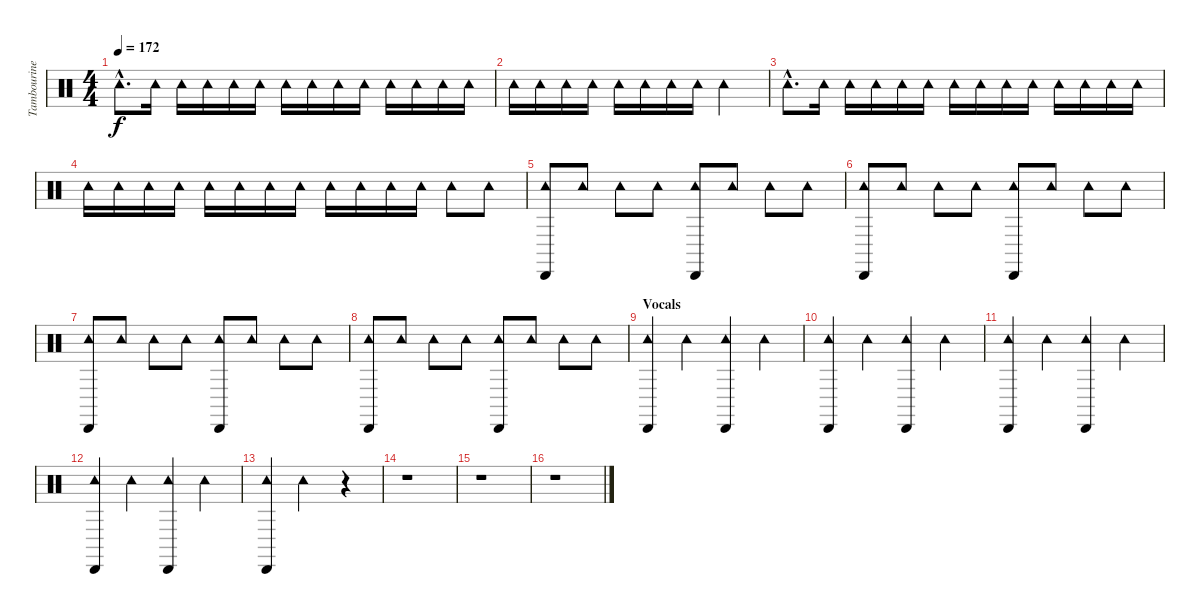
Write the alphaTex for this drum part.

\track ("Tambourine" "Tambourine") {instrument percussion}
\staff {score}
\articulation defaults
\ts (4 4)
\tempo 172
\clef neutral
\ks c "Tambourine (hit)"{hac}.8{d dy f} "Tambourine (hit)".16 "Tambourine (hit)".16 "Tambourine (hit)".16 "Tambourine (hit)".16 "Tambourine (hit)".16 "Tambourine (hit)".16 "Tambourine (hit)".16 "Tambourine (hit)".16 "Tambourine (hit)".16 "Tambourine (hit)".16 "Tambourine (hit)".16 "Tambourine (hit)".16 "Tambourine (hit)".16
|
"Tambourine (hit)".16 "Tambourine (hit)".16 "Tambourine (hit)".16 "Tambourine (hit)".16 "Tambourine (hit)".16 "Tambourine (hit)".16 "Tambourine (hit)".16 "Tambourine (hit)".16 "Tambourine (hit)".2 |
"Tambourine (hit)"{hac}.8{d} "Tambourine (hit)".16 "Tambourine (hit)".16 "Tambourine (hit)".16 "Tambourine (hit)".16 "Tambourine (hit)".16 "Tambourine (hit)".16 "Tambourine (hit)".16 "Tambourine (hit)".16 "Tambourine (hit)".16 "Tambourine (hit)".16 "Tambourine (hit)".16 "Tambourine (hit)".16 "Tambourine (hit)".16 |
"Tambourine (hit)".16 "Tambourine (hit)".16 "Tambourine (hit)".16 "Tambourine (hit)".16 "Tambourine (hit)".16 "Tambourine (hit)".16 "Tambourine (hit)".16 "Tambourine (hit)".16 "Tambourine (hit)".16 "Tambourine (hit)".16 "Tambourine (hit)".16 "Tambourine (hit)".16 "Tambourine (hit)".8 "Tambourine (hit)".8 |
("Tambourine (hit)" "Cabasa (hit)").8 "Tambourine (hit)".8 "Tambourine (hit)".8 "Tambourine (hit)".8 ("Tambourine (hit)" "Cabasa (hit)").8 "Tambourine (hit)".8 "Tambourine (hit)".8 "Tambourine (hit)".8 |
("Tambourine (hit)" "Cabasa (hit)").8 "Tambourine (hit)".8 "Tambourine (hit)".8 "Tambourine (hit)".8 ("Tambourine (hit)" "Cabasa (hit)").8 "Tambourine (hit)".8 "Tambourine (hit)".8 "Tambourine (hit)".8 |
("Tambourine (hit)" "Cabasa (hit)").8 "Tambourine (hit)".8 "Tambourine (hit)".8 "Tambourine (hit)".8 ("Tambourine (hit)" "Cabasa (hit)").8 "Tambourine (hit)".8 "Tambourine (hit)".8 "Tambourine (hit)".8 |
("Tambourine (hit)" "Cabasa (hit)").8 "Tambourine (hit)".8 "Tambourine (hit)".8 "Tambourine (hit)".8 ("Tambourine (hit)" "Cabasa (hit)").8 "Tambourine (hit)".8 "Tambourine (hit)".8 "Tambourine (hit)".8 |
\section ("" "Vocals")
("Tambourine (hit)" "Cabasa (hit)").4 "Tambourine (hit)".4 ("Tambourine (hit)" "Cabasa (hit)").4 "Tambourine (hit)".4 |
("Tambourine (hit)" "Cabasa (hit)").4 "Tambourine (hit)".4 ("Tambourine (hit)" "Cabasa (hit)").4 "Tambourine (hit)".4 |
("Tambourine (hit)" "Cabasa (hit)").4 "Tambourine (hit)".4 ("Tambourine (hit)" "Cabasa (hit)").4 "Tambourine (hit)".4 |
("Tambourine (hit)" "Cabasa (hit)").4 "Tambourine (hit)".4 ("Tambourine (hit)" "Cabasa (hit)").4 "Tambourine (hit)".4 |
("Tambourine (hit)" "Cabasa (hit)").4 "Tambourine (hit)".2 r.4 |
r.1 |
r.1 |
r.1
